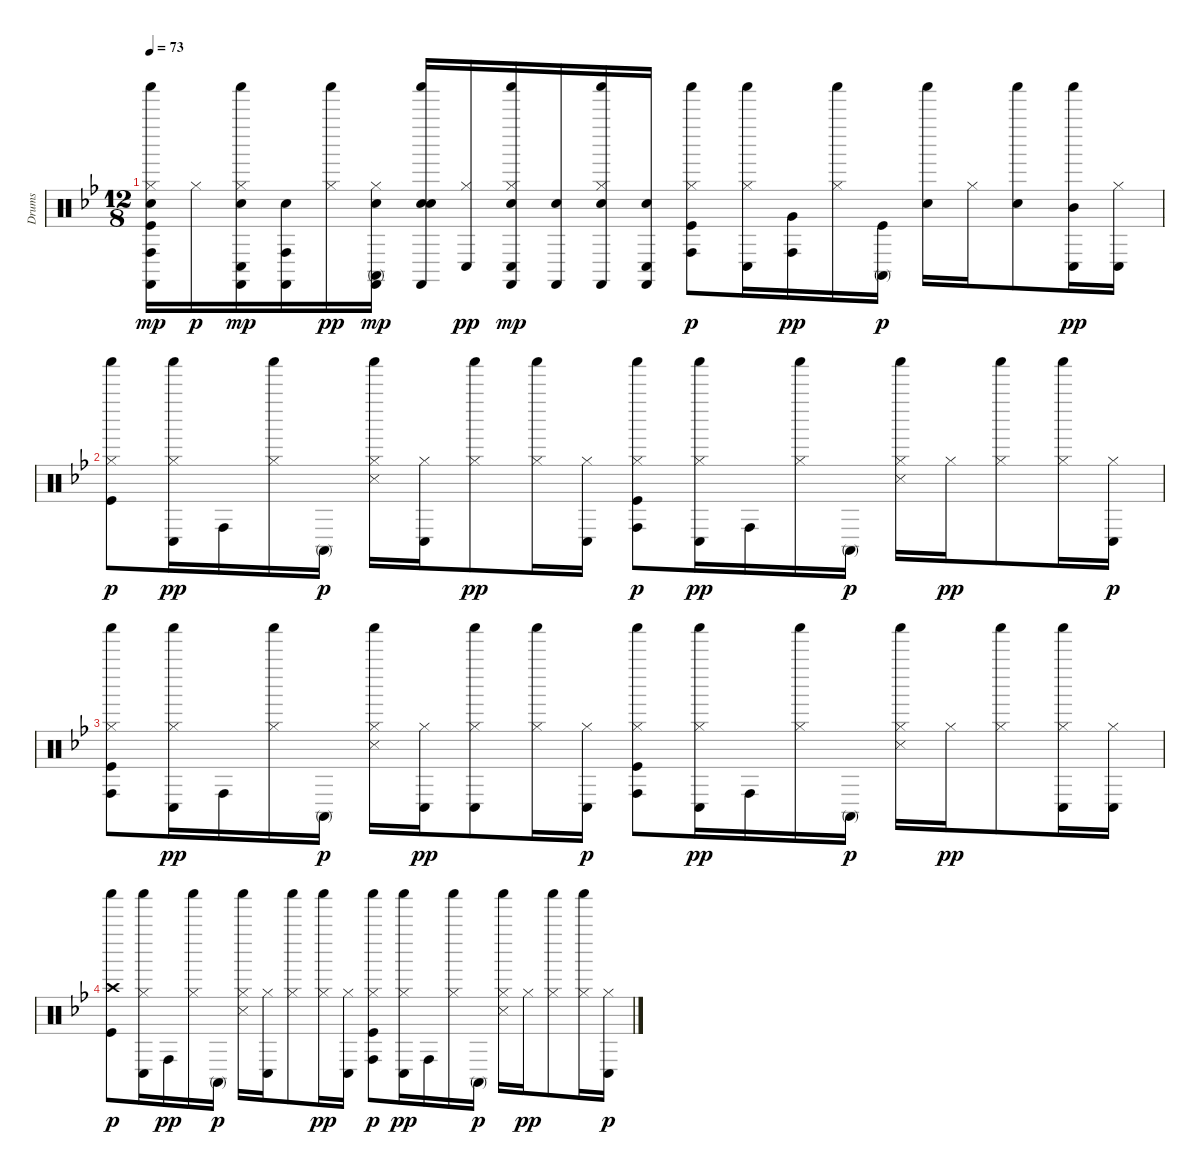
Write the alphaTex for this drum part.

\track ("Drums" "Drums") {instrument percussion}
\staff {score}
\articulation defaults
\ts (12 8)
\tempo 73
\clef neutral
\ks bb
("Kick (hit)" "Hand Clap (hit)" "Hi-Hat (closed)" "Conga high (hit)" "Shaker (hit)" "Castanets (hit)").16{dy mp} "Hi-Hat (closed)".16{dy p} ("Hand Clap (hit)" "Hi-Hat (closed)" "Conga low (hit)" "Shaker (hit)" "Castanets (hit)").16{dy mp} ("Hand Clap (hit)" "Conga high (hit)" "Castanets (hit)").16 ("Hi-Hat (closed)" "Shaker (hit)").16{dy pp} ("Hand Clap (hit)" "Hi-Hat (closed)" "Conga high (mute)" "Castanets (hit)").16{dy mp} ("Hand Clap (hit)" "Electric Snare (hit)" "Shaker (hit)" "Castanets (hit)").16 ("Hi-Hat (closed)" "Conga low (hit)").16{dy pp} ("Hand Clap (hit)" "Hi-Hat (closed)" "Conga low (hit)" "Shaker (hit)" "Castanets (hit)").16{dy mp} ("Hand Clap (hit)" "Castanets (hit)").16 ("Hand Clap (hit)" "Hi-Hat (closed)" "Shaker (hit)" "Castanets (hit)").16 ("Hand Clap (hit)" "Conga low (hit)" "Castanets (hit)").16 ("Kick (hit)" "Hi-Hat (closed)" "Conga high (hit)" "Shaker (hit)").8{dy p} ("Hi-Hat (closed)" "Conga low (hit)" "Shaker (hit)").16 ("Very Low Tom (hit)" "Conga high (hit)").16{dy pp} ("Hi-Hat (closed)" "Shaker (hit)").16 ("Kick (hit)" "Conga high (mute)").16{dy p} ("Electric Snare (hit)" "Shaker (hit)").16 "Hi-Hat (closed)".16 ("Electric Snare (hit)" "Shaker (hit)").8 ("Mid Tom (hit)" "Conga low (hit)" "Shaker (hit)").16{dy pp} ("Hi-Hat (closed)" "Conga low (hit)").16 |
("Kick (hit)" "Hi-Hat (closed)" "Shaker (hit)").8{dy p} ("Hi-Hat (closed)" "Conga low (hit)" "Shaker (hit)").16{dy pp} "Conga high (hit)".16 ("Hi-Hat (closed)" "Shaker (hit)").16 "Conga high (mute)".16{dy p} ("Snare (side stick) 3" "Hi-Hat (closed)" "Shaker (hit)").16 ("Hi-Hat (closed)" "Conga low (hit)").16 ("Hi-Hat (closed)" "Shaker (hit)").8{dy pp} ("Hi-Hat (closed)" "Shaker (hit)").16 ("Hi-Hat (closed)" "Conga low (hit)").16 ("Kick (hit)" "Hi-Hat (closed)" "Conga high (hit)" "Shaker (hit)").8{dy p} ("Hi-Hat (closed)" "Conga low (hit)" "Shaker (hit)").16{dy pp} "Conga high (hit)".16 ("Hi-Hat (closed)" "Shaker (hit)").16 "Conga high (mute)".16{dy p} ("Snare (side stick) 3" "Hi-Hat (closed)" "Shaker (hit)").16 "Hi-Hat (closed)".16{dy pp} ("Hi-Hat (closed)" "Shaker (hit)").8 ("Hi-Hat (closed)" "Shaker (hit)").16 ("Hi-Hat (closed)" "Conga low (hit)").16{dy p} |
("Kick (hit)" "Hi-Hat (closed)" "Conga high (hit)" "Shaker (hit)").8 ("Hi-Hat (closed)" "Conga low (hit)" "Shaker (hit)").16{dy pp} "Conga high (hit)".16 ("Hi-Hat (closed)" "Shaker (hit)").16 "Conga high (mute)".16{dy p} ("Snare (side stick) 3" "Hi-Hat (closed)" "Shaker (hit)").16 ("Hi-Hat (closed)" "Conga low (hit)").16{dy pp} ("Hi-Hat (closed)" "Conga low (hit)" "Shaker (hit)").8 ("Hi-Hat (closed)" "Shaker (hit)").16 ("Hi-Hat (closed)" "Conga low (hit)").16{dy p} ("Kick (hit)" "Hi-Hat (closed)" "Conga high (hit)" "Shaker (hit)").8 ("Hi-Hat (closed)" "Conga low (hit)" "Shaker (hit)").16{dy pp} "Conga high (hit)".16 ("Hi-Hat (closed)" "Shaker (hit)").16 "Conga high (mute)".16{dy p} ("Snare (side stick) 3" "Hi-Hat (closed)" "Shaker (hit)").16 "Hi-Hat (closed)".16{dy pp} ("Hi-Hat (closed)" "Shaker (hit)").8 ("Hi-Hat (closed)" "Conga low (hit)" "Shaker (hit)").16 ("Hi-Hat (closed)" "Conga low (hit)").16 |
("Kick (hit)" "Crash high (hit)" "Shaker (hit)").8{dy p} ("Hi-Hat (closed)" "Conga low (hit)" "Shaker (hit)").16 "Conga high (hit)".16{dy pp} ("Hi-Hat (closed)" "Shaker (hit)").16 "Conga high (mute)".16{dy p} ("Snare (side stick) 3" "Hi-Hat (closed)" "Shaker (hit)").16 ("Hi-Hat (closed)" "Conga low (hit)").16 ("Hi-Hat (closed)" "Shaker (hit)").8 ("Hi-Hat (closed)" "Shaker (hit)").16{dy pp} ("Hi-Hat (closed)" "Conga low (hit)").16 ("Kick (hit)" "Hi-Hat (closed)" "Conga high (hit)" "Shaker (hit)").8{dy p} ("Hi-Hat (closed)" "Conga low (hit)" "Shaker (hit)").16{dy pp} "Conga high (hit)".16 ("Hi-Hat (closed)" "Shaker (hit)").16 "Conga high (mute)".16{dy p} ("Snare (side stick) 3" "Hi-Hat (closed)" "Shaker (hit)").16 "Hi-Hat (closed)".16{dy pp} ("Hi-Hat (closed)" "Shaker (hit)").8 ("Hi-Hat (closed)" "Shaker (hit)").16 ("Hi-Hat (closed)" "Conga low (hit)").16{dy p}
